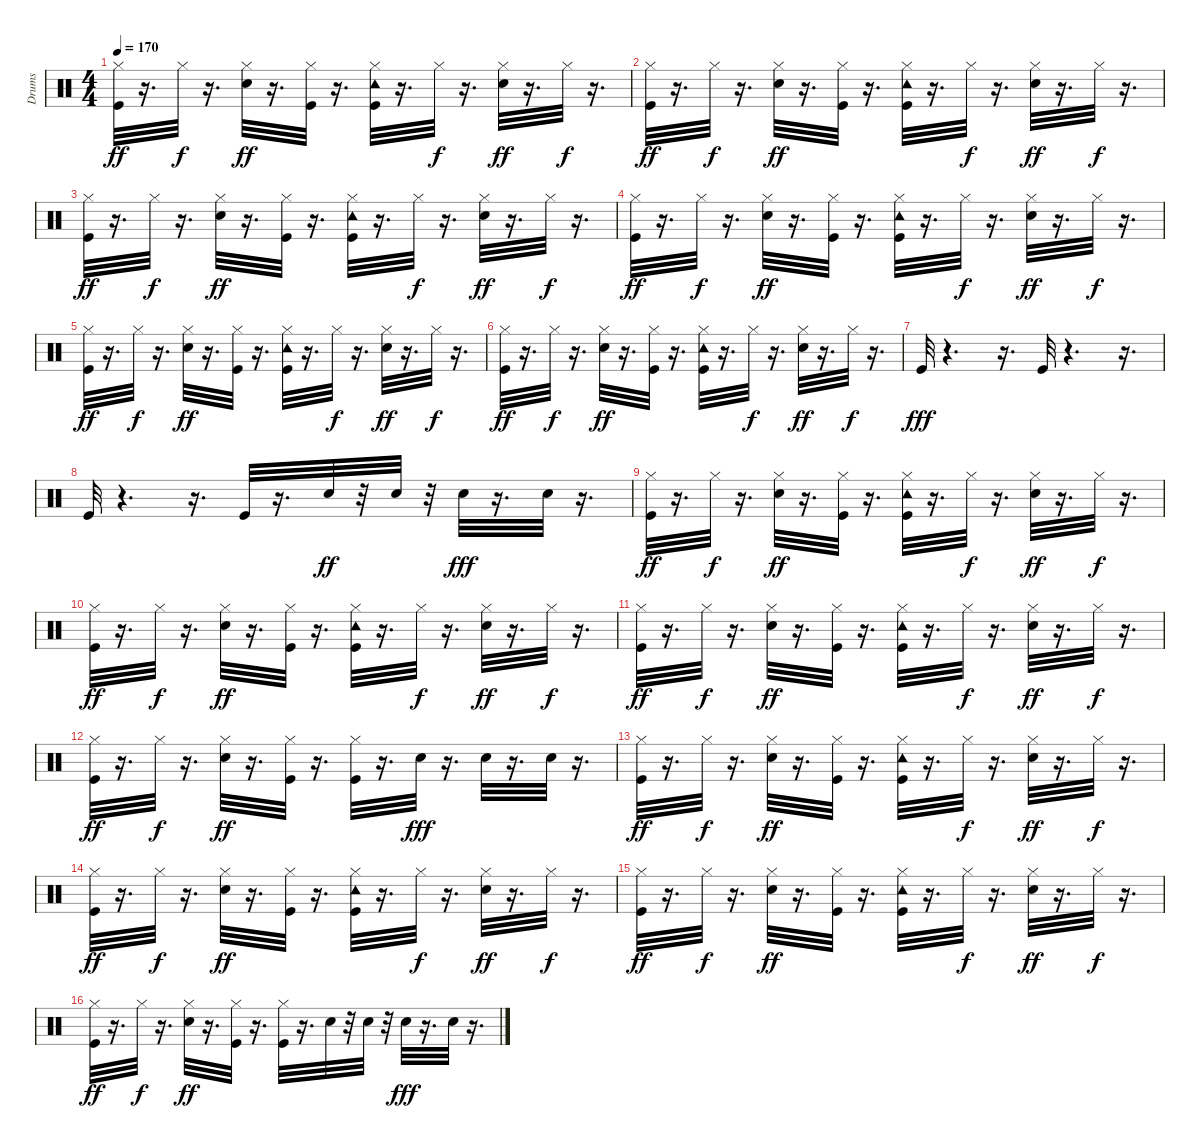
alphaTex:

\track ("Drums" "Drums") {instrument percussion}
\staff {score}
\articulation defaults
\ts (4 4)
\tempo 170
\clef neutral
\ks c
("Kick (hit)" "Hi-Hat (closed)").32{dy ff} r.16{d} "Hi-Hat (closed)".32{dy f} r.16{d} ("Snare (hit) 2" "Hi-Hat (closed)").32{dy ff} r.16{d} ("Hi-Hat (closed)" "Kick (hit)").32 r.16{d} ("Kick (hit)" "Tambourine (hit)" "Hi-Hat (closed)").32 r.16{d} "Hi-Hat (closed)".32{dy f} r.16{d} ("Snare (hit) 2" "Hi-Hat (closed)").32{dy ff} r.16{d} "Hi-Hat (closed)".32{dy f} r.16{d} |
("Kick (hit)" "Hi-Hat (closed)").32{dy ff} r.16{d} "Hi-Hat (closed)".32{dy f} r.16{d} ("Snare (hit) 2" "Hi-Hat (closed)").32{dy ff} r.16{d} ("Hi-Hat (closed)" "Kick (hit)").32 r.16{d} ("Kick (hit)" "Tambourine (hit)" "Hi-Hat (closed)").32 r.16{d} "Hi-Hat (closed)".32{dy f} r.16{d} ("Snare (hit) 2" "Hi-Hat (closed)").32{dy ff} r.16{d} "Hi-Hat (closed)".32{dy f} r.16{d} |
("Kick (hit)" "Hi-Hat (closed)").32{dy ff} r.16{d} "Hi-Hat (closed)".32{dy f} r.16{d} ("Snare (hit) 2" "Hi-Hat (closed)").32{dy ff} r.16{d} ("Hi-Hat (closed)" "Kick (hit)").32 r.16{d} ("Kick (hit)" "Tambourine (hit)" "Hi-Hat (closed)").32 r.16{d} "Hi-Hat (closed)".32{dy f} r.16{d} ("Snare (hit) 2" "Hi-Hat (closed)").32{dy ff} r.16{d} "Hi-Hat (closed)".32{dy f} r.16{d} |
("Kick (hit)" "Hi-Hat (closed)").32{dy ff} r.16{d} "Hi-Hat (closed)".32{dy f} r.16{d} ("Snare (hit) 2" "Hi-Hat (closed)").32{dy ff} r.16{d} ("Hi-Hat (closed)" "Kick (hit)").32 r.16{d} ("Kick (hit)" "Tambourine (hit)" "Hi-Hat (closed)").32 r.16{d} "Hi-Hat (closed)".32{dy f} r.16{d} ("Snare (hit) 2" "Hi-Hat (closed)").32{dy ff} r.16{d} "Hi-Hat (closed)".32{dy f} r.16{d} |
("Kick (hit)" "Hi-Hat (closed)").32{dy ff} r.16{d} "Hi-Hat (closed)".32{dy f} r.16{d} ("Snare (hit) 2" "Hi-Hat (closed)").32{dy ff} r.16{d} ("Hi-Hat (closed)" "Kick (hit)").32 r.16{d} ("Kick (hit)" "Tambourine (hit)" "Hi-Hat (closed)").32 r.16{d} "Hi-Hat (closed)".32{dy f} r.16{d} ("Snare (hit) 2" "Hi-Hat (closed)").32{dy ff} r.16{d} "Hi-Hat (closed)".32{dy f} r.16{d} |
("Kick (hit)" "Hi-Hat (closed)").32{dy ff} r.16{d} "Hi-Hat (closed)".32{dy f} r.16{d} ("Snare (hit) 2" "Hi-Hat (closed)").32{dy ff} r.16{d} ("Hi-Hat (closed)" "Kick (hit)").32 r.16{d} ("Kick (hit)" "Tambourine (hit)" "Hi-Hat (closed)").32 r.16{d} "Hi-Hat (closed)".32{dy f} r.16{d} ("Snare (hit) 2" "Hi-Hat (closed)").32{dy ff} r.16{d} "Hi-Hat (closed)".32{dy f} r.16{d} |
"Kick (hit)".32{dy fff} r.4{d} r.16{d} "Kick (hit)".32 r.4{d} r.16{d} |
"Kick (hit)".32 r.4{d} r.16{d} "Kick (hit)".32 r.16{d} "Snare (hit) 2".32{dy ff} r.32 "Snare (hit) 2".32 r.32 "Snare (hit) 2".32{dy fff} r.16{d} "Snare (hit) 2".32 r.16{d} |
("Kick (hit)" "Hi-Hat (closed)").32{dy ff} r.16{d} "Hi-Hat (closed)".32{dy f} r.16{d} ("Snare (hit) 2" "Hi-Hat (closed)").32{dy ff} r.16{d} ("Hi-Hat (closed)" "Kick (hit)").32 r.16{d} ("Kick (hit)" "Tambourine (hit)" "Hi-Hat (closed)").32 r.16{d} "Hi-Hat (closed)".32{dy f} r.16{d} ("Snare (hit) 2" "Hi-Hat (closed)").32{dy ff} r.16{d} "Hi-Hat (closed)".32{dy f} r.16{d} |
("Kick (hit)" "Hi-Hat (closed)").32{dy ff} r.16{d} "Hi-Hat (closed)".32{dy f} r.16{d} ("Snare (hit) 2" "Hi-Hat (closed)").32{dy ff} r.16{d} ("Hi-Hat (closed)" "Kick (hit)").32 r.16{d} ("Kick (hit)" "Tambourine (hit)" "Hi-Hat (closed)").32 r.16{d} "Hi-Hat (closed)".32{dy f} r.16{d} ("Snare (hit) 2" "Hi-Hat (closed)").32{dy ff} r.16{d} "Hi-Hat (closed)".32{dy f} r.16{d} |
("Kick (hit)" "Hi-Hat (closed)").32{dy ff} r.16{d} "Hi-Hat (closed)".32{dy f} r.16{d} ("Snare (hit) 2" "Hi-Hat (closed)").32{dy ff} r.16{d} ("Hi-Hat (closed)" "Kick (hit)").32 r.16{d} ("Kick (hit)" "Tambourine (hit)" "Hi-Hat (closed)").32 r.16{d} "Hi-Hat (closed)".32{dy f} r.16{d} ("Snare (hit) 2" "Hi-Hat (closed)").32{dy ff} r.16{d} "Hi-Hat (closed)".32{dy f} r.16{d} |
("Kick (hit)" "Hi-Hat (closed)").32{dy ff} r.16{d} "Hi-Hat (closed)".32{dy f} r.16{d} ("Snare (hit) 2" "Hi-Hat (closed)").32{dy ff} r.16{d} ("Hi-Hat (closed)" "Kick (hit)").32 r.16{d} ("Kick (hit)" "Hi-Hat (closed)").32 r.16{d} "Snare (hit) 2".32{dy fff} r.16{d} "Snare (hit) 2".32 r.16{d} "Snare (hit) 2".32 r.16{d} |
("Kick (hit)" "Hi-Hat (closed)").32{dy ff} r.16{d} "Hi-Hat (closed)".32{dy f} r.16{d} ("Snare (hit) 2" "Hi-Hat (closed)").32{dy ff} r.16{d} ("Hi-Hat (closed)" "Kick (hit)").32 r.16{d} ("Kick (hit)" "Tambourine (hit)" "Hi-Hat (closed)").32 r.16{d} "Hi-Hat (closed)".32{dy f} r.16{d} ("Snare (hit) 2" "Hi-Hat (closed)").32{dy ff} r.16{d} "Hi-Hat (closed)".32{dy f} r.16{d} |
("Kick (hit)" "Hi-Hat (closed)").32{dy ff} r.16{d} "Hi-Hat (closed)".32{dy f} r.16{d} ("Snare (hit) 2" "Hi-Hat (closed)").32{dy ff} r.16{d} ("Hi-Hat (closed)" "Kick (hit)").32 r.16{d} ("Kick (hit)" "Tambourine (hit)" "Hi-Hat (closed)").32 r.16{d} "Hi-Hat (closed)".32{dy f} r.16{d} ("Snare (hit) 2" "Hi-Hat (closed)").32{dy ff} r.16{d} "Hi-Hat (closed)".32{dy f} r.16{d} |
("Kick (hit)" "Hi-Hat (closed)").32{dy ff} r.16{d} "Hi-Hat (closed)".32{dy f} r.16{d} ("Snare (hit) 2" "Hi-Hat (closed)").32{dy ff} r.16{d} ("Hi-Hat (closed)" "Kick (hit)").32 r.16{d} ("Kick (hit)" "Tambourine (hit)" "Hi-Hat (closed)").32 r.16{d} "Hi-Hat (closed)".32{dy f} r.16{d} ("Snare (hit) 2" "Hi-Hat (closed)").32{dy ff} r.16{d} "Hi-Hat (closed)".32{dy f} r.16{d} |
("Kick (hit)" "Hi-Hat (closed)").32{dy ff} r.16{d} "Hi-Hat (closed)".32{dy f} r.16{d} ("Snare (hit) 2" "Hi-Hat (closed)").32{dy ff} r.16{d} ("Hi-Hat (closed)" "Kick (hit)").32 r.16{d} ("Kick (hit)" "Hi-Hat (closed)").32 r.16{d} "Snare (hit) 2".32 r.32 "Snare (hit) 2".32 r.32 "Snare (hit) 2".32{dy fff} r.16{d} "Snare (hit) 2".32 r.16{d}
